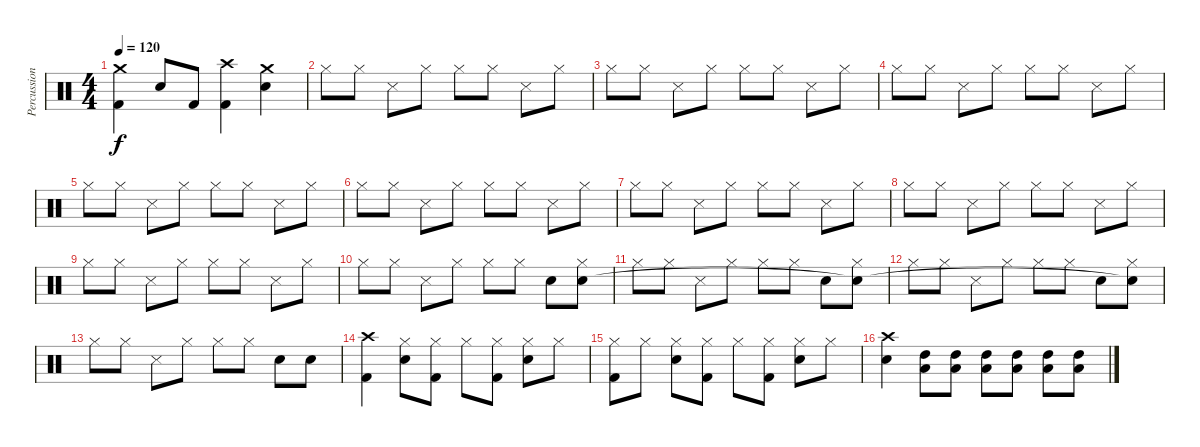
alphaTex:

\track ("Percussion" "Percussion") {instrument percussion}
\staff {score}
\articulation defaults
\ts (4 4)
\tempo 120
\clef neutral
\ks c
("Crash medium (hit)" "Kick (hit) 2").4{dy f} "Electric Snare (hit)".8 "Kick (hit) 2".8 ("Crash high (hit)" "Kick (hit) 2").4 ("Crash medium (hit)" "Electric Snare (hit)").4 |
"Hi-Hat (closed)".8 "Hi-Hat (closed)".8 "Snare (side stick) 3".8 "Hi-Hat (closed)".8 "Hi-Hat (closed)".8 "Hi-Hat (closed)".8 "Snare (side stick) 3".8 "Hi-Hat (closed)".8 |
"Hi-Hat (closed)".8 "Hi-Hat (closed)".8 "Snare (side stick) 3".8 "Hi-Hat (closed)".8 "Hi-Hat (closed)".8 "Hi-Hat (closed)".8 "Snare (side stick) 3".8 "Hi-Hat (closed)".8 |
"Hi-Hat (closed)".8 "Hi-Hat (closed)".8 "Snare (side stick) 3".8 "Hi-Hat (closed)".8 "Hi-Hat (closed)".8 "Hi-Hat (closed)".8 "Snare (side stick) 3".8 "Hi-Hat (closed)".8 |
"Hi-Hat (closed)".8 "Hi-Hat (closed)".8 "Snare (side stick) 3".8 "Hi-Hat (closed)".8 "Hi-Hat (closed)".8 "Hi-Hat (closed)".8 "Snare (side stick) 3".8 "Hi-Hat (closed)".8 |
"Hi-Hat (closed)".8 "Hi-Hat (closed)".8 "Snare (side stick) 3".8 "Hi-Hat (closed)".8 "Hi-Hat (closed)".8 "Hi-Hat (closed)".8 "Snare (side stick) 3".8 "Hi-Hat (closed)".8 |
"Hi-Hat (closed)".8 "Hi-Hat (closed)".8 "Snare (side stick) 3".8 "Hi-Hat (closed)".8 "Hi-Hat (closed)".8 "Hi-Hat (closed)".8 "Snare (side stick) 3".8 "Hi-Hat (closed)".8 |
"Hi-Hat (closed)".8 "Hi-Hat (closed)".8 "Snare (side stick) 3".8 "Hi-Hat (closed)".8 "Hi-Hat (closed)".8 "Hi-Hat (closed)".8 "Snare (side stick) 3".8 "Hi-Hat (closed)".8 |
"Hi-Hat (closed)".8 "Hi-Hat (closed)".8 "Snare (side stick) 3".8 "Hi-Hat (closed)".8 "Hi-Hat (closed)".8 "Hi-Hat (closed)".8 "Snare (side stick) 3".8 "Hi-Hat (closed)".8 |
"Hi-Hat (closed)".8 "Hi-Hat (closed)".8 "Snare (side stick) 3".8 "Hi-Hat (closed)".8 "Hi-Hat (closed)".8 "Hi-Hat (closed)".8 "Electric Snare (hit)".8 ("Hi-Hat (closed)" "Snare (hit)").8 |
"Hi-Hat (closed)".8 "Hi-Hat (closed)".8 "Snare (side stick) 3".8 "Hi-Hat (closed)".8 "Hi-Hat (closed)".8 "Hi-Hat (closed)".8 "Electric Snare (hit)".8 ("Hi-Hat (closed)" "Snare (hit)"{t}).8 |
"Hi-Hat (closed)".8 "Hi-Hat (closed)".8 "Snare (side stick) 3".8 "Hi-Hat (closed)".8 "Hi-Hat (closed)".8 "Hi-Hat (closed)".8 "Electric Snare (hit)".8 ("Hi-Hat (closed)" "Snare (hit)"{t}).8 |
"Hi-Hat (closed)".8 "Hi-Hat (closed)".8 "Snare (side stick) 3".8 "Hi-Hat (closed)".8 "Hi-Hat (closed)".8 "Hi-Hat (closed)".8 "Electric Snare (hit)".8 "Electric Snare (hit)".8 |
("Crash high (hit)" "Kick (hit) 2").4 ("Hi-Hat (closed)" "Electric Snare (hit)").8 ("Hi-Hat (closed)" "Kick (hit) 2").8 "Hi-Hat (closed)".8 ("Hi-Hat (closed)" "Kick (hit) 2").8 ("Hi-Hat (closed)" "Electric Snare (hit)").8 "Hi-Hat (closed)".8 |
("Hi-Hat (closed)" "Kick (hit) 2").8 "Hi-Hat (closed)".8 ("Hi-Hat (closed)" "Electric Snare (hit)").8 ("Hi-Hat (closed)" "Kick (hit) 2").8 "Hi-Hat (closed)".8 ("Hi-Hat (closed)" "Kick (hit) 2").8 ("Hi-Hat (closed)" "Electric Snare (hit)").8 "Hi-Hat (closed)".8 |
("Crash high (hit)" "Electric Snare (hit)").4 ("Low Floor Tom (hit)" "High Tom (hit)").8 ("Low Floor Tom (hit)" "High Tom (hit)").8 ("Low Floor Tom (hit)" "High Tom (hit)").8 ("Low Floor Tom (hit)" "High Tom (hit)").8 ("Low Floor Tom (hit)" "High Tom (hit)").8 ("Low Floor Tom (hit)" "High Tom (hit)").8
